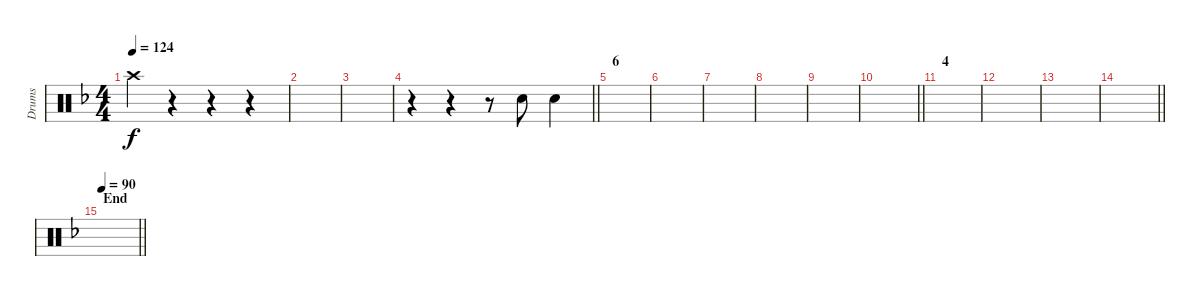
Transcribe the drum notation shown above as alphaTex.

\track ("Drums" "Drums") {instrument percussion}
\staff {score}
\articulation defaults
\ts (4 4)
\tempo 124
\clef neutral
\ks f "Crash high (hit)".4{dy f}
r.4 r.4 r.4 |
|
|
\barLineRight lightlight
r.4 r.4 r.8 "Snare (hit) 2".8 "Snare (hit) 2".4 |
\section ("" "6")
|
|
|
|
|
\barLineRight lightlight
|
\section ("" "4")
|
|
|
\barLineRight lightlight
|
\section ("" "End")
\tempo 90
\barLineRight lightlight
